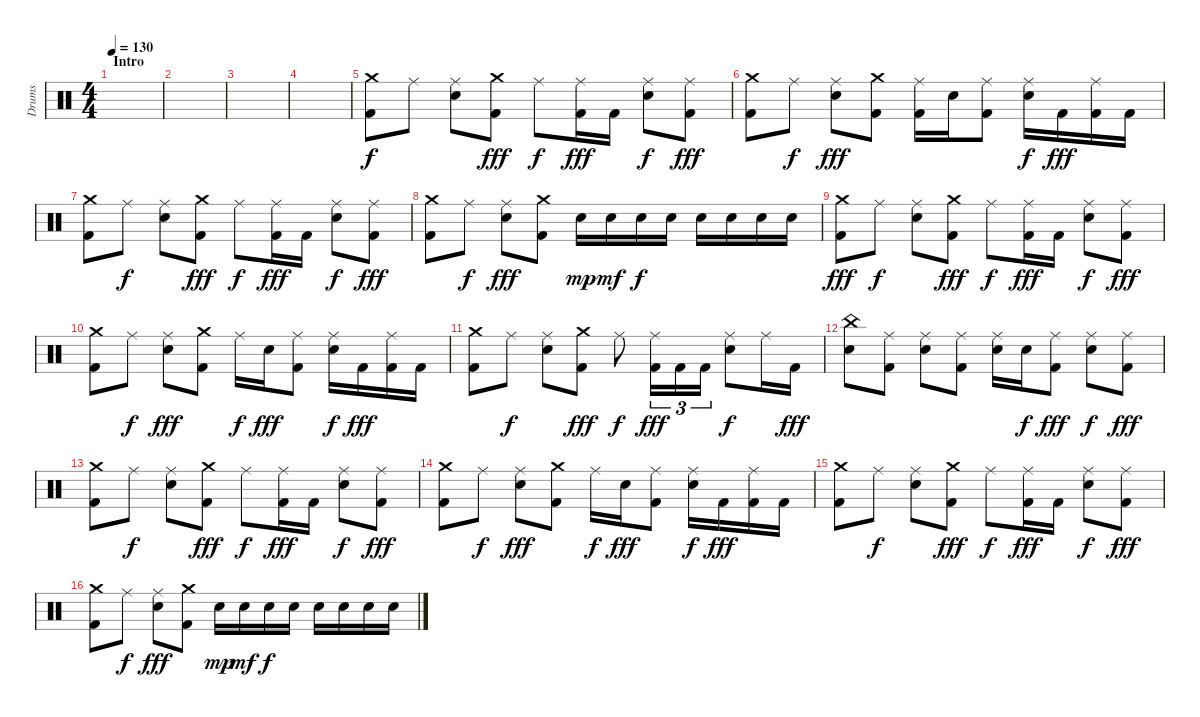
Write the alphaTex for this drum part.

\track ("Drums" "Drums") {instrument percussion}
\staff {score}
\articulation defaults
\ts (4 4)
\section ("" "Intro")
\tempo 130
\clef neutral
\ks c
|
|
|
|
("Crash medium (hit)" "Kick (hit) 2").8 "Ride (middle)".8{dy f} ("Ride (middle)" "Snare (hit) 2").8 ("Crash medium (hit)" "Kick (hit) 2").8{dy fff} "Ride (middle)".8{dy f} ("Ride (middle)" "Kick (hit) 2").16{dy fff} "Kick (hit) 2".16 ("Ride (middle)" "Snare (hit) 2").8{dy f} ("Ride (middle)" "Kick (hit) 2").8{dy fff} |
("Crash medium (hit)" "Kick (hit) 2").8 "Ride (middle)".8{dy f} ("Ride (middle)" "Snare (hit) 2").8{dy fff} ("Crash medium (hit)" "Kick (hit) 2").8 ("Ride (middle)" "Kick (hit) 2").16 "Snare (hit) 2".16 ("Ride (middle)" "Kick (hit) 2").8 ("Ride (middle)" "Snare (hit) 2").16{dy f} "Kick (hit) 2".16{dy fff} ("Ride (middle)" "Kick (hit) 2").16 "Kick (hit) 2".16 |
("Crash medium (hit)" "Kick (hit) 2").8 "Ride (middle)".8{dy f} ("Ride (middle)" "Snare (hit) 2").8 ("Crash medium (hit)" "Kick (hit) 2").8{dy fff} "Ride (middle)".8{dy f} ("Ride (middle)" "Kick (hit) 2").16{dy fff} "Kick (hit) 2".16 ("Ride (middle)" "Snare (hit) 2").8{dy f} ("Ride (middle)" "Kick (hit) 2").8{dy fff} |
("Crash medium (hit)" "Kick (hit) 2").8 "Ride (middle)".8{dy f} ("Ride (middle)" "Snare (hit) 2").8{dy fff} ("Crash medium (hit)" "Kick (hit) 2").8 "Snare (hit) 2".16{dy mp} "Snare (hit) 2".16{dy mf} "Snare (hit) 2".16{dy f} "Snare (hit) 2".16 "Snare (hit) 2".16 "Snare (hit) 2".16 "Snare (hit) 2".16 "Snare (hit) 2".16 |
("Crash medium (hit)" "Kick (hit) 2").8{dy fff} "Ride (middle)".8{dy f} ("Ride (middle)" "Snare (hit) 2").8 ("Crash medium (hit)" "Kick (hit) 2").8{dy fff} "Ride (middle)".8{dy f} ("Ride (middle)" "Kick (hit) 2").16{dy fff} "Kick (hit) 2".16 ("Ride (middle)" "Snare (hit) 2").8{dy f} ("Ride (middle)" "Kick (hit) 2").8{dy fff} |
("Crash medium (hit)" "Kick (hit) 2").8 "Ride (middle)".8{dy f} ("Ride (middle)" "Snare (hit) 2").8{dy fff} ("Crash medium (hit)" "Kick (hit) 2").8 "Ride (middle)".16{dy f} "Snare (hit) 2".16{dy fff} ("Ride (middle)" "Kick (hit) 2").8 ("Ride (middle)" "Snare (hit) 2").16{dy f} "Kick (hit) 2".16{dy fff} ("Ride (middle)" "Kick (hit) 2").16 "Kick (hit) 2".16 |
("Crash medium (hit)" "Kick (hit) 2").8 "Ride (middle)".8{dy f} ("Ride (middle)" "Snare (hit) 2").8 ("Crash medium (hit)" "Kick (hit) 2").8{dy fff} "Ride (middle)".8{dy f} ("Ride (middle)" "Kick (hit) 2").16{tu (3 2) dy fff} "Kick (hit) 2".16{tu (3 2)} "Kick (hit) 2".16{tu (3 2)} ("Ride (middle)" "Snare (hit) 2").8{dy f} "Ride (middle)".16 "Kick (hit) 2".16{dy fff} |
("China (hit)" "Snare (hit) 2").8 ("Ride (middle)" "Kick (hit) 2").8 ("Ride (middle)" "Snare (hit) 2").8 ("Ride (middle)" "Kick (hit) 2").8 ("Ride (middle)" "Snare (hit) 2").16 "Snare (hit) 2".16{dy f} ("Ride (middle)" "Kick (hit) 2").8{dy fff} ("Ride (middle)" "Snare (hit) 2").8{dy f} ("Ride (middle)" "Kick (hit) 2").8{dy fff} |
("Crash medium (hit)" "Kick (hit) 2").8 "Ride (middle)".8{dy f} ("Ride (middle)" "Snare (hit) 2").8 ("Crash medium (hit)" "Kick (hit) 2").8{dy fff} "Ride (middle)".8{dy f} ("Ride (middle)" "Kick (hit) 2").16{dy fff} "Kick (hit) 2".16 ("Ride (middle)" "Snare (hit) 2").8{dy f} ("Ride (middle)" "Kick (hit) 2").8{dy fff} |
("Crash medium (hit)" "Kick (hit) 2").8 "Ride (middle)".8{dy f} ("Ride (middle)" "Snare (hit) 2").8{dy fff} ("Crash medium (hit)" "Kick (hit) 2").8 "Ride (middle)".16{dy f} "Snare (hit) 2".16{dy fff} ("Ride (middle)" "Kick (hit) 2").8 ("Ride (middle)" "Snare (hit) 2").16{dy f} "Kick (hit) 2".16{dy fff} ("Ride (middle)" "Kick (hit) 2").16 "Kick (hit) 2".16 |
("Crash medium (hit)" "Kick (hit) 2").8 "Ride (middle)".8{dy f} ("Ride (middle)" "Snare (hit) 2").8 ("Crash medium (hit)" "Kick (hit) 2").8{dy fff} "Ride (middle)".8{dy f} ("Ride (middle)" "Kick (hit) 2").16{dy fff} "Kick (hit) 2".16 ("Ride (middle)" "Snare (hit) 2").8{dy f} ("Ride (middle)" "Kick (hit) 2").8{dy fff} |
("Crash medium (hit)" "Kick (hit) 2").8 "Ride (middle)".8{dy f} ("Ride (middle)" "Snare (hit) 2").8{dy fff} ("Crash medium (hit)" "Kick (hit) 2").8 "Snare (hit) 2".16{dy mp} "Snare (hit) 2".16{dy mf} "Snare (hit) 2".16{dy f} "Snare (hit) 2".16 "Snare (hit) 2".16 "Snare (hit) 2".16 "Snare (hit) 2".16 "Snare (hit) 2".16
